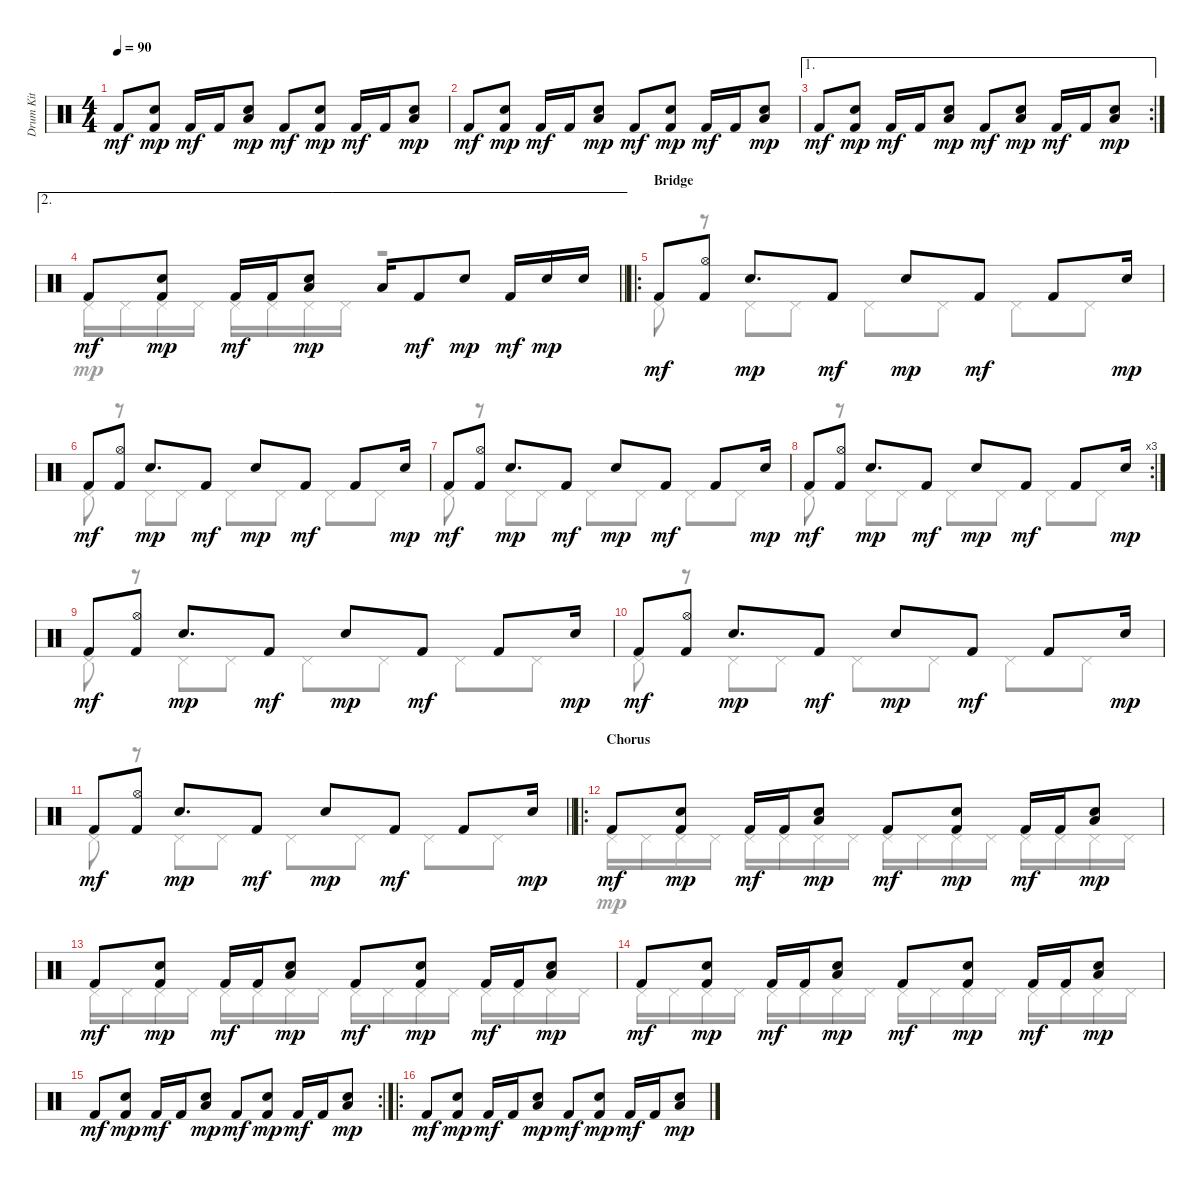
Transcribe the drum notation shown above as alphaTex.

\track ("Drum Kit" "Drum Kit") {instrument percussion}
\staff {score}
\articulation defaults
\voice
\ts (4 4)
\tempo 90
\clef neutral
\ks c "Kick (hit) 2".8{dy mf}
("Electric Snare (hit)" "Kick (hit) 2").8{dy mp} "Kick (hit) 2".16{dy mf} "Kick (hit) 2".16 ("Electric Snare (hit)" "Low Tom (hit)").8{bd 60 dy mp} "Kick (hit) 2".8{dy mf} ("Electric Snare (hit)" "Kick (hit) 2").8{dy mp} "Kick (hit) 2".16{dy mf} "Kick (hit) 2".16 ("Electric Snare (hit)" "Low Tom (hit)").8{bd 60 dy mp} |
"Kick (hit) 2".8{dy mf} ("Electric Snare (hit)" "Kick (hit) 2").8{dy mp} "Kick (hit) 2".16{dy mf} "Kick (hit) 2".16 ("Electric Snare (hit)" "Low Tom (hit)").8{bd 60 dy mp} "Kick (hit) 2".8{dy mf} ("Electric Snare (hit)" "Kick (hit) 2").8{dy mp} "Kick (hit) 2".16{dy mf} "Kick (hit) 2".16 ("Electric Snare (hit)" "Low Tom (hit)").8{bd 60 dy mp} |
\ae 1
\rc 2 "Kick (hit) 2".8{dy mf}
("Electric Snare (hit)" "Kick (hit) 2").8{dy mp} "Kick (hit) 2".16{dy mf} "Kick (hit) 2".16 ("Electric Snare (hit)" "Low Tom (hit)").8{bd 60 dy mp} "Kick (hit) 2".8{dy mf} ("Electric Snare (hit)" "Low Tom (hit)").8{bd 120 dy mp} "Kick (hit) 2".16{dy mf} "Kick (hit) 2".16 ("Electric Snare (hit)" "Low Tom (hit)").8{bd 60 dy mp} |
\ae 2
\barLineRight lightlight "Kick (hit) 2".8{dy mf}
("Electric Snare (hit)" "Kick (hit) 2").8{dy mp} "Kick (hit) 2".16{dy mf} "Kick (hit) 2".16 ("Electric Snare (hit)" "Low Tom (hit)").8{bd 60 dy mp} "Low Tom (hit)".16 "Kick (hit) 2".8{dy mf} "Electric Snare (hit)".8{dy mp} "Kick (hit) 2".16{dy mf} "Electric Snare (hit)".16{dy mp} "Electric Snare (hit)".16 |
\ro
\section ("" "Bridge")
"Kick (hit) 2".8{dy mf} ("Hi-Hat (open)" "Kick (hit) 2").8 "Electric Snare (hit)".8{d dy mp} "Kick (hit) 2".8{dy mf} "Electric Snare (hit)".8{dy mp} "Kick (hit) 2".8{dy mf} "Kick (hit) 2".8 "Electric Snare (hit)".16{dy mp} |
"Kick (hit) 2".8{dy mf} ("Hi-Hat (open)" "Kick (hit) 2").8 "Electric Snare (hit)".8{d dy mp} "Kick (hit) 2".8{dy mf} "Electric Snare (hit)".8{dy mp} "Kick (hit) 2".8{dy mf} "Kick (hit) 2".8 "Electric Snare (hit)".16{dy mp} |
"Kick (hit) 2".8{dy mf} ("Hi-Hat (open)" "Kick (hit) 2").8 "Electric Snare (hit)".8{d dy mp} "Kick (hit) 2".8{dy mf} "Electric Snare (hit)".8{dy mp} "Kick (hit) 2".8{dy mf} "Kick (hit) 2".8 "Electric Snare (hit)".16{dy mp} |
\rc 3 "Kick (hit) 2".8{dy mf}
("Hi-Hat (open)" "Kick (hit) 2").8 "Electric Snare (hit)".8{d dy mp} "Kick (hit) 2".8{dy mf} "Electric Snare (hit)".8{dy mp} "Kick (hit) 2".8{dy mf} "Kick (hit) 2".8 "Electric Snare (hit)".16{dy mp} |
"Kick (hit) 2".8{dy mf} ("Hi-Hat (open)" "Kick (hit) 2").8 "Electric Snare (hit)".8{d dy mp} "Kick (hit) 2".8{dy mf} "Electric Snare (hit)".8{dy mp} "Kick (hit) 2".8{dy mf} "Kick (hit) 2".8 "Electric Snare (hit)".16{dy mp} |
"Kick (hit) 2".8{dy mf} ("Hi-Hat (open)" "Kick (hit) 2").8 "Electric Snare (hit)".8{d dy mp} "Kick (hit) 2".8{dy mf} "Electric Snare (hit)".8{dy mp} "Kick (hit) 2".8{dy mf} "Kick (hit) 2".8 "Electric Snare (hit)".16{dy mp} |
\barLineRight lightlight "Kick (hit) 2".8{dy mf}
("Hi-Hat (open)" "Kick (hit) 2").8 "Electric Snare (hit)".8{d dy mp} "Kick (hit) 2".8{dy mf} "Electric Snare (hit)".8{dy mp} "Kick (hit) 2".8{dy mf} "Kick (hit) 2".8 "Electric Snare (hit)".16{dy mp} |
\ro
\section ("" "Chorus")
"Kick (hit) 2".8{dy mf} ("Electric Snare (hit)" "Kick (hit) 2").8{dy mp} "Kick (hit) 2".16{dy mf} "Kick (hit) 2".16 ("Electric Snare (hit)" "Low Tom (hit)").8{bd 60 dy mp} "Kick (hit) 2".8{dy mf} ("Electric Snare (hit)" "Kick (hit) 2").8{dy mp} "Kick (hit) 2".16{dy mf} "Kick (hit) 2".16 ("Electric Snare (hit)" "Low Tom (hit)").8{bd 60 dy mp} |
"Kick (hit) 2".8{dy mf} ("Electric Snare (hit)" "Kick (hit) 2").8{dy mp} "Kick (hit) 2".16{dy mf} "Kick (hit) 2".16 ("Electric Snare (hit)" "Low Tom (hit)").8{bd 60 dy mp} "Kick (hit) 2".8{dy mf} ("Electric Snare (hit)" "Kick (hit) 2").8{dy mp} "Kick (hit) 2".16{dy mf} "Kick (hit) 2".16 ("Electric Snare (hit)" "Low Tom (hit)").8{bd 60 dy mp} |
"Kick (hit) 2".8{dy mf} ("Electric Snare (hit)" "Kick (hit) 2").8{dy mp} "Kick (hit) 2".16{dy mf} "Kick (hit) 2".16 ("Electric Snare (hit)" "Low Tom (hit)").8{bd 60 dy mp} "Kick (hit) 2".8{dy mf} ("Electric Snare (hit)" "Kick (hit) 2").8{dy mp} "Kick (hit) 2".16{dy mf} "Kick (hit) 2".16 ("Electric Snare (hit)" "Low Tom (hit)").8{bd 60 dy mp} |
\rc 2 "Kick (hit) 2".8{dy mf}
("Electric Snare (hit)" "Kick (hit) 2").8{dy mp} "Kick (hit) 2".16{dy mf} "Kick (hit) 2".16 ("Electric Snare (hit)" "Low Tom (hit)").8{bd 60 dy mp} "Kick (hit) 2".8{dy mf} ("Electric Snare (hit)" "Kick (hit) 2").8{dy mp} "Kick (hit) 2".16{dy mf} "Kick (hit) 2".16 ("Electric Snare (hit)" "Low Tom (hit)").8{bd 60 dy mp} |
\ro "Kick (hit) 2".8{dy mf}
("Electric Snare (hit)" "Kick (hit) 2").8{dy mp} "Kick (hit) 2".16{dy mf} "Kick (hit) 2".16 ("Electric Snare (hit)" "Low Tom (hit)").8{bd 60 dy mp} "Kick (hit) 2".8{dy mf} ("Electric Snare (hit)" "Kick (hit) 2").8{dy mp} "Kick (hit) 2".16{dy mf} "Kick (hit) 2".16 ("Electric Snare (hit)" "Low Tom (hit)").8{bd 60 dy mp}
\voice
\clef neutral
\ottava regular
\simile none
\ks c
|
|
|
\barLineRight lightlight "Pedal Hi-Hat (hit)".16 "Pedal Hi-Hat (hit)".16 "Pedal Hi-Hat (hit)".16 "Pedal Hi-Hat (hit)".16 "Pedal Hi-Hat (hit)".16 "Pedal Hi-Hat (hit)".16 "Pedal Hi-Hat (hit)".16 "Pedal Hi-Hat (hit)".16
r.2 |
"Pedal Hi-Hat (hit)".8{dy mf} r.8 "Pedal Hi-Hat (hit)".8 "Pedal Hi-Hat (hit)".8 "Pedal Hi-Hat (hit)".8 "Pedal Hi-Hat (hit)".8 "Pedal Hi-Hat (hit)".8 "Pedal Hi-Hat (hit)".8 |
"Pedal Hi-Hat (hit)".8 r.8 "Pedal Hi-Hat (hit)".8 "Pedal Hi-Hat (hit)".8 "Pedal Hi-Hat (hit)".8 "Pedal Hi-Hat (hit)".8 "Pedal Hi-Hat (hit)".8 "Pedal Hi-Hat (hit)".8 |
"Pedal Hi-Hat (hit)".8 r.8 "Pedal Hi-Hat (hit)".8 "Pedal Hi-Hat (hit)".8 "Pedal Hi-Hat (hit)".8 "Pedal Hi-Hat (hit)".8 "Pedal Hi-Hat (hit)".8 "Pedal Hi-Hat (hit)".8 |
"Pedal Hi-Hat (hit)".8 r.8 "Pedal Hi-Hat (hit)".8 "Pedal Hi-Hat (hit)".8 "Pedal Hi-Hat (hit)".8 "Pedal Hi-Hat (hit)".8 "Pedal Hi-Hat (hit)".8 "Pedal Hi-Hat (hit)".8 |
"Pedal Hi-Hat (hit)".8 r.8 "Pedal Hi-Hat (hit)".8 "Pedal Hi-Hat (hit)".8 "Pedal Hi-Hat (hit)".8 "Pedal Hi-Hat (hit)".8 "Pedal Hi-Hat (hit)".8 "Pedal Hi-Hat (hit)".8 |
"Pedal Hi-Hat (hit)".8 r.8 "Pedal Hi-Hat (hit)".8 "Pedal Hi-Hat (hit)".8 "Pedal Hi-Hat (hit)".8 "Pedal Hi-Hat (hit)".8 "Pedal Hi-Hat (hit)".8 "Pedal Hi-Hat (hit)".8 |
\barLineRight lightlight "Pedal Hi-Hat (hit)".8
r.8 "Pedal Hi-Hat (hit)".8 "Pedal Hi-Hat (hit)".8 "Pedal Hi-Hat (hit)".8 "Pedal Hi-Hat (hit)".8 "Pedal Hi-Hat (hit)".8 "Pedal Hi-Hat (hit)".8 |
"Pedal Hi-Hat (hit)".16{dy mp} "Pedal Hi-Hat (hit)".16 "Pedal Hi-Hat (hit)".16 "Pedal Hi-Hat (hit)".16 "Pedal Hi-Hat (hit)".16 "Pedal Hi-Hat (hit)".16 "Pedal Hi-Hat (hit)".16 "Pedal Hi-Hat (hit)".16 "Pedal Hi-Hat (hit)".16 "Pedal Hi-Hat (hit)".16 "Pedal Hi-Hat (hit)".16 "Pedal Hi-Hat (hit)".16 "Pedal Hi-Hat (hit)".16 "Pedal Hi-Hat (hit)".16 "Pedal Hi-Hat (hit)".16 "Pedal Hi-Hat (hit)".16 |
"Pedal Hi-Hat (hit)".16 "Pedal Hi-Hat (hit)".16 "Pedal Hi-Hat (hit)".16 "Pedal Hi-Hat (hit)".16 "Pedal Hi-Hat (hit)".16 "Pedal Hi-Hat (hit)".16 "Pedal Hi-Hat (hit)".16 "Pedal Hi-Hat (hit)".16 "Pedal Hi-Hat (hit)".16 "Pedal Hi-Hat (hit)".16 "Pedal Hi-Hat (hit)".16 "Pedal Hi-Hat (hit)".16 "Pedal Hi-Hat (hit)".16 "Pedal Hi-Hat (hit)".16 "Pedal Hi-Hat (hit)".16 "Pedal Hi-Hat (hit)".16 |
"Pedal Hi-Hat (hit)".16 "Pedal Hi-Hat (hit)".16 "Pedal Hi-Hat (hit)".16 "Pedal Hi-Hat (hit)".16 "Pedal Hi-Hat (hit)".16 "Pedal Hi-Hat (hit)".16 "Pedal Hi-Hat (hit)".16 "Pedal Hi-Hat (hit)".16 "Pedal Hi-Hat (hit)".16 "Pedal Hi-Hat (hit)".16 "Pedal Hi-Hat (hit)".16 "Pedal Hi-Hat (hit)".16 "Pedal Hi-Hat (hit)".16 "Pedal Hi-Hat (hit)".16 "Pedal Hi-Hat (hit)".16 "Pedal Hi-Hat (hit)".16 |
|
